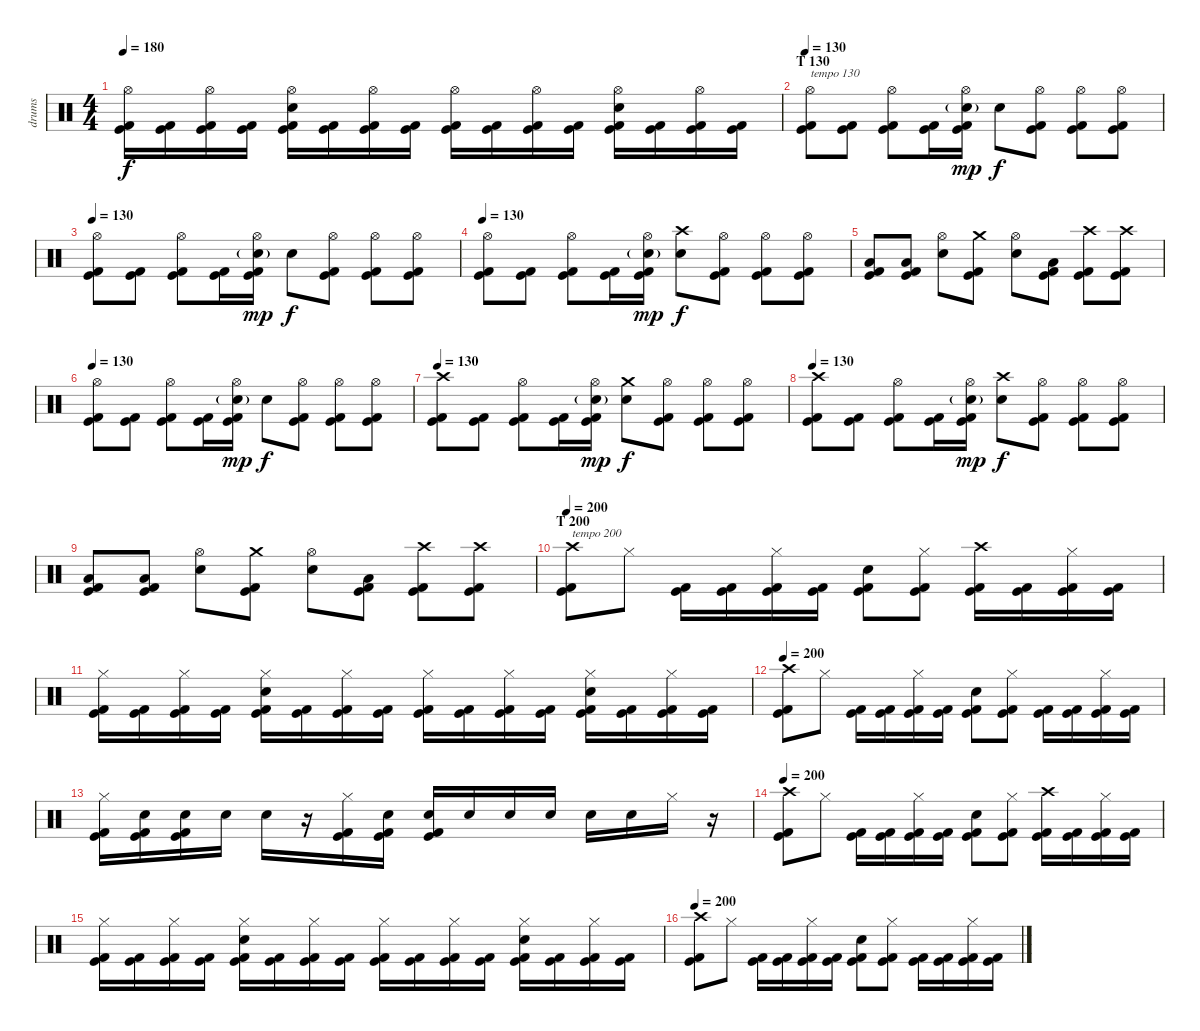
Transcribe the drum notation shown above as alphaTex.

\track ("drums" "drums") {instrument percussion}
\staff {score}
\articulation defaults
\ts (4 4)
\tempo 180
\clef neutral
\ks c
("Hi-Hat (open)" "Kick (hit) 2" "Kick (hit)").16{dy f} ("Kick (hit) 2" "Kick (hit)").16 ("Hi-Hat (open)" "Kick (hit) 2" "Kick (hit)").16 ("Kick (hit) 2" "Kick (hit)").16 ("Hi-Hat (open)" "Electric Snare (hit)" "Kick (hit) 2" "Kick (hit)").16 ("Kick (hit) 2" "Kick (hit)").16 ("Hi-Hat (open)" "Kick (hit) 2" "Kick (hit)").16 ("Kick (hit) 2" "Kick (hit)").16 ("Hi-Hat (open)" "Kick (hit) 2" "Kick (hit)").16 ("Kick (hit) 2" "Kick (hit)").16 ("Hi-Hat (open)" "Kick (hit) 2" "Kick (hit)").16 ("Kick (hit) 2" "Kick (hit)").16 ("Hi-Hat (open)" "Electric Snare (hit)" "Kick (hit) 2" "Kick (hit)").16 ("Kick (hit) 2" "Kick (hit)").16 ("Hi-Hat (open)" "Kick (hit) 2" "Kick (hit)").16 ("Kick (hit) 2" "Kick (hit)").16 |
\section ("" "T 130")
\tempo 130
("Hi-Hat (open)" "Kick (hit) 2" "Kick (hit)").8{txt "tempo 130"} ("Kick (hit) 2" "Kick (hit)").8 ("Hi-Hat (open)" "Kick (hit) 2" "Kick (hit)").8 ("Kick (hit) 2" "Kick (hit)").16 ("Hi-Hat (open)" "Electric Snare (hit)"{g} "Kick (hit) 2" "Kick (hit)").16{dy mp} "Electric Snare (hit)".8{dy f} ("Hi-Hat (open)" "Kick (hit) 2" "Kick (hit)").8 ("Hi-Hat (open)" "Kick (hit) 2" "Kick (hit)").8 ("Hi-Hat (open)" "Kick (hit) 2" "Kick (hit)").8 |
\tempo 130
("Hi-Hat (open)" "Kick (hit) 2" "Kick (hit)").8 ("Kick (hit) 2" "Kick (hit)").8 ("Hi-Hat (open)" "Kick (hit) 2" "Kick (hit)").8 ("Kick (hit) 2" "Kick (hit)").16 ("Hi-Hat (open)" "Electric Snare (hit)"{g} "Kick (hit) 2" "Kick (hit)").16{dy mp} "Electric Snare (hit)".8{dy f} ("Hi-Hat (open)" "Kick (hit) 2" "Kick (hit)").8 ("Hi-Hat (open)" "Kick (hit) 2" "Kick (hit)").8 ("Hi-Hat (open)" "Kick (hit) 2" "Kick (hit)").8 |
\tempo 130
("Hi-Hat (open)" "Kick (hit) 2" "Kick (hit)").8 ("Kick (hit) 2" "Kick (hit)").8 ("Hi-Hat (open)" "Kick (hit) 2" "Kick (hit)").8 ("Kick (hit) 2" "Kick (hit)").16 ("Hi-Hat (open)" "Electric Snare (hit)"{g} "Kick (hit) 2" "Kick (hit)").16{dy mp} ("Crash high (hit)" "Electric Snare (hit)").8{dy f} ("Hi-Hat (open)" "Kick (hit) 2" "Kick (hit)").8 ("Hi-Hat (open)" "Kick (hit) 2" "Kick (hit)").8 ("Hi-Hat (open)" "Kick (hit) 2" "Kick (hit)").8 |
("Low Floor Tom (hit)" "Kick (hit) 2" "Kick (hit)").8 ("Low Floor Tom (hit)" "Kick (hit) 2" "Kick (hit)").8 ("Hi-Hat (open)" "Electric Snare (hit)").8 ("Crash medium (hit)" "Kick (hit) 2" "Kick (hit)").8 ("Hi-Hat (open)" "Electric Snare (hit)").8 ("Low Floor Tom (hit)" "Kick (hit) 2" "Kick (hit)").8 ("Crash high (hit)" "Kick (hit) 2" "Kick (hit)").8 ("Crash high (hit)" "Kick (hit) 2" "Kick (hit)").8 |
\tempo 130
("Hi-Hat (open)" "Kick (hit) 2" "Kick (hit)").8 ("Kick (hit) 2" "Kick (hit)").8 ("Hi-Hat (open)" "Kick (hit) 2" "Kick (hit)").8 ("Kick (hit) 2" "Kick (hit)").16 ("Hi-Hat (open)" "Electric Snare (hit)"{g} "Kick (hit) 2" "Kick (hit)").16{dy mp} "Electric Snare (hit)".8{dy f} ("Hi-Hat (open)" "Kick (hit) 2" "Kick (hit)").8 ("Hi-Hat (open)" "Kick (hit) 2" "Kick (hit)").8 ("Hi-Hat (open)" "Kick (hit) 2" "Kick (hit)").8 |
\tempo 130
("Crash high (hit)" "Kick (hit) 2" "Kick (hit)").8 ("Kick (hit) 2" "Kick (hit)").8 ("Hi-Hat (open)" "Kick (hit) 2" "Kick (hit)").8 ("Kick (hit) 2" "Kick (hit)").16 ("Hi-Hat (open)" "Electric Snare (hit)"{g} "Kick (hit) 2" "Kick (hit)").16{dy mp} ("Crash medium (hit)" "Electric Snare (hit)").8{dy f} ("Hi-Hat (open)" "Kick (hit) 2" "Kick (hit)").8 ("Hi-Hat (open)" "Kick (hit) 2" "Kick (hit)").8 ("Hi-Hat (open)" "Kick (hit) 2" "Kick (hit)").8 |
\tempo 130
("Crash high (hit)" "Kick (hit) 2" "Kick (hit)").8 ("Kick (hit) 2" "Kick (hit)").8 ("Hi-Hat (open)" "Kick (hit) 2" "Kick (hit)").8 ("Kick (hit) 2" "Kick (hit)").16 ("Hi-Hat (open)" "Electric Snare (hit)"{g} "Kick (hit) 2" "Kick (hit)").16{dy mp} ("Crash high (hit)" "Electric Snare (hit)").8{dy f} ("Hi-Hat (open)" "Kick (hit) 2" "Kick (hit)").8 ("Hi-Hat (open)" "Kick (hit) 2" "Kick (hit)").8 ("Hi-Hat (open)" "Kick (hit) 2" "Kick (hit)").8 |
("Low Floor Tom (hit)" "Kick (hit) 2" "Kick (hit)").8 ("Low Floor Tom (hit)" "Kick (hit) 2" "Kick (hit)").8 ("Hi-Hat (open)" "Electric Snare (hit)").8 ("Crash medium (hit)" "Kick (hit) 2" "Kick (hit)").8 ("Hi-Hat (open)" "Electric Snare (hit)").8 ("Low Floor Tom (hit)" "Kick (hit) 2" "Kick (hit)").8 ("Crash high (hit)" "Kick (hit) 2" "Kick (hit)").8 ("Crash high (hit)" "Kick (hit) 2" "Kick (hit)").8 |
\section ("" "T 200")
\tempo 200
("Crash high (hit)" "Kick (hit) 2" "Kick (hit)").8{txt "tempo 200"} "Hi-Hat (closed)".8 ("Kick (hit) 2" "Kick (hit)").16 ("Kick (hit) 2" "Kick (hit)").16 ("Hi-Hat (closed)" "Kick (hit) 2" "Kick (hit)").16 ("Kick (hit) 2" "Kick (hit)").16 ("Electric Snare (hit)" "Kick (hit) 2" "Kick (hit)").8 ("Hi-Hat (closed)" "Kick (hit) 2" "Kick (hit)").8 ("Crash high (hit)" "Kick (hit) 2" "Kick (hit)").16 ("Kick (hit) 2" "Kick (hit)").16 ("Hi-Hat (closed)" "Kick (hit) 2" "Kick (hit)").16 ("Kick (hit) 2" "Kick (hit)").16 |
("Hi-Hat (closed)" "Kick (hit) 2" "Kick (hit)").16 ("Kick (hit) 2" "Kick (hit)").16 ("Hi-Hat (closed)" "Kick (hit) 2" "Kick (hit)").16 ("Kick (hit) 2" "Kick (hit)").16 ("Hi-Hat (closed)" "Electric Snare (hit)" "Kick (hit) 2" "Kick (hit)").16 ("Kick (hit) 2" "Kick (hit)").16 ("Hi-Hat (closed)" "Kick (hit) 2" "Kick (hit)").16 ("Kick (hit) 2" "Kick (hit)").16 ("Hi-Hat (closed)" "Kick (hit) 2" "Kick (hit)").16 ("Kick (hit) 2" "Kick (hit)").16 ("Hi-Hat (closed)" "Kick (hit) 2" "Kick (hit)").16 ("Kick (hit) 2" "Kick (hit)").16 ("Hi-Hat (closed)" "Electric Snare (hit)" "Kick (hit) 2" "Kick (hit)").16 ("Kick (hit) 2" "Kick (hit)").16 ("Hi-Hat (closed)" "Kick (hit) 2" "Kick (hit)").16 ("Kick (hit) 2" "Kick (hit)").16 |
\tempo 200
("Crash high (hit)" "Kick (hit) 2" "Kick (hit)").8 "Hi-Hat (closed)".8 ("Kick (hit) 2" "Kick (hit)").16 ("Kick (hit) 2" "Kick (hit)").16 ("Hi-Hat (closed)" "Kick (hit) 2" "Kick (hit)").16 ("Kick (hit) 2" "Kick (hit)").16 ("Electric Snare (hit)" "Kick (hit) 2" "Kick (hit)").8 ("Hi-Hat (closed)" "Kick (hit) 2" "Kick (hit)").8 ("Kick (hit) 2" "Kick (hit)").16 ("Kick (hit) 2" "Kick (hit)").16 ("Hi-Hat (closed)" "Kick (hit) 2" "Kick (hit)").16 ("Kick (hit) 2" "Kick (hit)").16 |
("Hi-Hat (closed)" "Kick (hit) 2" "Kick (hit)").16 ("Electric Snare (hit)" "Kick (hit) 2" "Kick (hit)").16 ("Electric Snare (hit)" "Kick (hit) 2" "Kick (hit)").16 "Electric Snare (hit)".16 "Electric Snare (hit)".16 r.16 ("Hi-Hat (closed)" "Kick (hit) 2" "Kick (hit)").16 ("Electric Snare (hit)" "Kick (hit) 2" "Kick (hit)").16 ("Electric Snare (hit)" "Kick (hit) 2" "Kick (hit)").16 "Electric Snare (hit)".16 "Electric Snare (hit)".16 "Electric Snare (hit)".16 "Electric Snare (hit)".16 "Electric Snare (hit)".16 "Hi-Hat (closed)".16 r.16 |
\tempo 200
("Crash high (hit)" "Kick (hit) 2" "Kick (hit)").8 "Hi-Hat (closed)".8 ("Kick (hit) 2" "Kick (hit)").16 ("Kick (hit) 2" "Kick (hit)").16 ("Hi-Hat (closed)" "Kick (hit) 2" "Kick (hit)").16 ("Kick (hit) 2" "Kick (hit)").16 ("Electric Snare (hit)" "Kick (hit) 2" "Kick (hit)").8 ("Hi-Hat (closed)" "Kick (hit) 2" "Kick (hit)").8 ("Crash high (hit)" "Kick (hit) 2" "Kick (hit)").16 ("Kick (hit) 2" "Kick (hit)").16 ("Hi-Hat (closed)" "Kick (hit) 2" "Kick (hit)").16 ("Kick (hit) 2" "Kick (hit)").16 |
("Hi-Hat (closed)" "Kick (hit) 2" "Kick (hit)").16 ("Kick (hit) 2" "Kick (hit)").16 ("Hi-Hat (closed)" "Kick (hit) 2" "Kick (hit)").16 ("Kick (hit) 2" "Kick (hit)").16 ("Hi-Hat (closed)" "Electric Snare (hit)" "Kick (hit) 2" "Kick (hit)").16 ("Kick (hit) 2" "Kick (hit)").16 ("Hi-Hat (closed)" "Kick (hit) 2" "Kick (hit)").16 ("Kick (hit) 2" "Kick (hit)").16 ("Hi-Hat (closed)" "Kick (hit) 2" "Kick (hit)").16 ("Kick (hit) 2" "Kick (hit)").16 ("Hi-Hat (closed)" "Kick (hit) 2" "Kick (hit)").16 ("Kick (hit) 2" "Kick (hit)").16 ("Hi-Hat (closed)" "Electric Snare (hit)" "Kick (hit) 2" "Kick (hit)").16 ("Kick (hit) 2" "Kick (hit)").16 ("Hi-Hat (closed)" "Kick (hit) 2" "Kick (hit)").16 ("Kick (hit) 2" "Kick (hit)").16 |
\tempo 200
("Crash high (hit)" "Kick (hit) 2" "Kick (hit)").8 "Hi-Hat (closed)".8 ("Kick (hit) 2" "Kick (hit)").16 ("Kick (hit) 2" "Kick (hit)").16 ("Hi-Hat (closed)" "Kick (hit) 2" "Kick (hit)").16 ("Kick (hit) 2" "Kick (hit)").16 ("Electric Snare (hit)" "Kick (hit) 2" "Kick (hit)").8 ("Hi-Hat (closed)" "Kick (hit) 2" "Kick (hit)").8 ("Kick (hit) 2" "Kick (hit)").16 ("Kick (hit) 2" "Kick (hit)").16 ("Hi-Hat (closed)" "Kick (hit) 2" "Kick (hit)").16 ("Kick (hit) 2" "Kick (hit)").16
